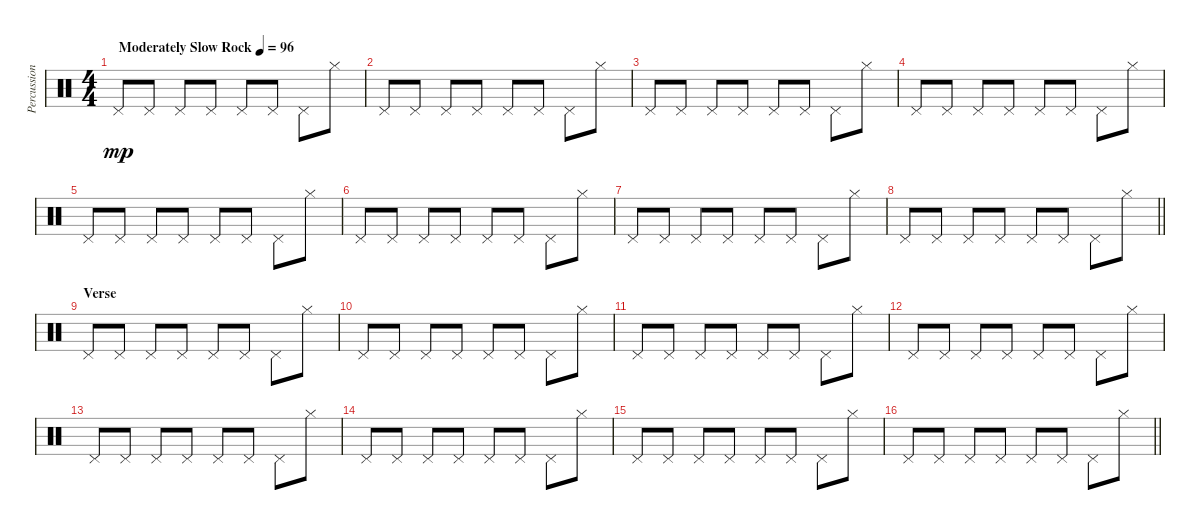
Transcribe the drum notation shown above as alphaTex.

\track ("Percussion" "Percussion") {instrument percussion}
\staff {score}
\articulation defaults
\ts (4 4)
\tempo (96 "Moderately Slow Rock")
\clef neutral
\ks c "Pedal Hi-Hat (hit)".8{dy mp} "Pedal Hi-Hat (hit)".8 "Pedal Hi-Hat (hit)".8 "Pedal Hi-Hat (hit)".8 "Pedal Hi-Hat (hit)".8 "Pedal Hi-Hat (hit)".8 "Pedal Hi-Hat (hit)".8 "Hi-Hat (closed)".8
|
"Pedal Hi-Hat (hit)".8 "Pedal Hi-Hat (hit)".8 "Pedal Hi-Hat (hit)".8 "Pedal Hi-Hat (hit)".8 "Pedal Hi-Hat (hit)".8 "Pedal Hi-Hat (hit)".8 "Pedal Hi-Hat (hit)".8 "Hi-Hat (closed)".8 |
"Pedal Hi-Hat (hit)".8 "Pedal Hi-Hat (hit)".8 "Pedal Hi-Hat (hit)".8 "Pedal Hi-Hat (hit)".8 "Pedal Hi-Hat (hit)".8 "Pedal Hi-Hat (hit)".8 "Pedal Hi-Hat (hit)".8 "Hi-Hat (closed)".8 |
"Pedal Hi-Hat (hit)".8 "Pedal Hi-Hat (hit)".8 "Pedal Hi-Hat (hit)".8 "Pedal Hi-Hat (hit)".8 "Pedal Hi-Hat (hit)".8 "Pedal Hi-Hat (hit)".8 "Pedal Hi-Hat (hit)".8 "Hi-Hat (closed)".8 |
"Pedal Hi-Hat (hit)".8 "Pedal Hi-Hat (hit)".8 "Pedal Hi-Hat (hit)".8 "Pedal Hi-Hat (hit)".8 "Pedal Hi-Hat (hit)".8 "Pedal Hi-Hat (hit)".8 "Pedal Hi-Hat (hit)".8 "Hi-Hat (closed)".8 |
"Pedal Hi-Hat (hit)".8 "Pedal Hi-Hat (hit)".8 "Pedal Hi-Hat (hit)".8 "Pedal Hi-Hat (hit)".8 "Pedal Hi-Hat (hit)".8 "Pedal Hi-Hat (hit)".8 "Pedal Hi-Hat (hit)".8 "Hi-Hat (closed)".8 |
"Pedal Hi-Hat (hit)".8 "Pedal Hi-Hat (hit)".8 "Pedal Hi-Hat (hit)".8 "Pedal Hi-Hat (hit)".8 "Pedal Hi-Hat (hit)".8 "Pedal Hi-Hat (hit)".8 "Pedal Hi-Hat (hit)".8 "Hi-Hat (closed)".8 |
\barLineRight lightlight "Pedal Hi-Hat (hit)".8 "Pedal Hi-Hat (hit)".8 "Pedal Hi-Hat (hit)".8 "Pedal Hi-Hat (hit)".8 "Pedal Hi-Hat (hit)".8 "Pedal Hi-Hat (hit)".8 "Pedal Hi-Hat (hit)".8 "Hi-Hat (closed)".8
|
\section ("" "Verse")
"Pedal Hi-Hat (hit)".8 "Pedal Hi-Hat (hit)".8 "Pedal Hi-Hat (hit)".8 "Pedal Hi-Hat (hit)".8 "Pedal Hi-Hat (hit)".8 "Pedal Hi-Hat (hit)".8 "Pedal Hi-Hat (hit)".8 "Hi-Hat (closed)".8 |
"Pedal Hi-Hat (hit)".8 "Pedal Hi-Hat (hit)".8 "Pedal Hi-Hat (hit)".8 "Pedal Hi-Hat (hit)".8 "Pedal Hi-Hat (hit)".8 "Pedal Hi-Hat (hit)".8 "Pedal Hi-Hat (hit)".8 "Hi-Hat (closed)".8 |
"Pedal Hi-Hat (hit)".8 "Pedal Hi-Hat (hit)".8 "Pedal Hi-Hat (hit)".8 "Pedal Hi-Hat (hit)".8 "Pedal Hi-Hat (hit)".8 "Pedal Hi-Hat (hit)".8 "Pedal Hi-Hat (hit)".8 "Hi-Hat (closed)".8 |
"Pedal Hi-Hat (hit)".8 "Pedal Hi-Hat (hit)".8 "Pedal Hi-Hat (hit)".8 "Pedal Hi-Hat (hit)".8 "Pedal Hi-Hat (hit)".8 "Pedal Hi-Hat (hit)".8 "Pedal Hi-Hat (hit)".8 "Hi-Hat (closed)".8 |
"Pedal Hi-Hat (hit)".8 "Pedal Hi-Hat (hit)".8 "Pedal Hi-Hat (hit)".8 "Pedal Hi-Hat (hit)".8 "Pedal Hi-Hat (hit)".8 "Pedal Hi-Hat (hit)".8 "Pedal Hi-Hat (hit)".8 "Hi-Hat (closed)".8 |
"Pedal Hi-Hat (hit)".8 "Pedal Hi-Hat (hit)".8 "Pedal Hi-Hat (hit)".8 "Pedal Hi-Hat (hit)".8 "Pedal Hi-Hat (hit)".8 "Pedal Hi-Hat (hit)".8 "Pedal Hi-Hat (hit)".8 "Hi-Hat (closed)".8 |
"Pedal Hi-Hat (hit)".8 "Pedal Hi-Hat (hit)".8 "Pedal Hi-Hat (hit)".8 "Pedal Hi-Hat (hit)".8 "Pedal Hi-Hat (hit)".8 "Pedal Hi-Hat (hit)".8 "Pedal Hi-Hat (hit)".8 "Hi-Hat (closed)".8 |
\barLineRight lightlight "Pedal Hi-Hat (hit)".8 "Pedal Hi-Hat (hit)".8 "Pedal Hi-Hat (hit)".8 "Pedal Hi-Hat (hit)".8 "Pedal Hi-Hat (hit)".8 "Pedal Hi-Hat (hit)".8 "Pedal Hi-Hat (hit)".8 "Hi-Hat (closed)".8
